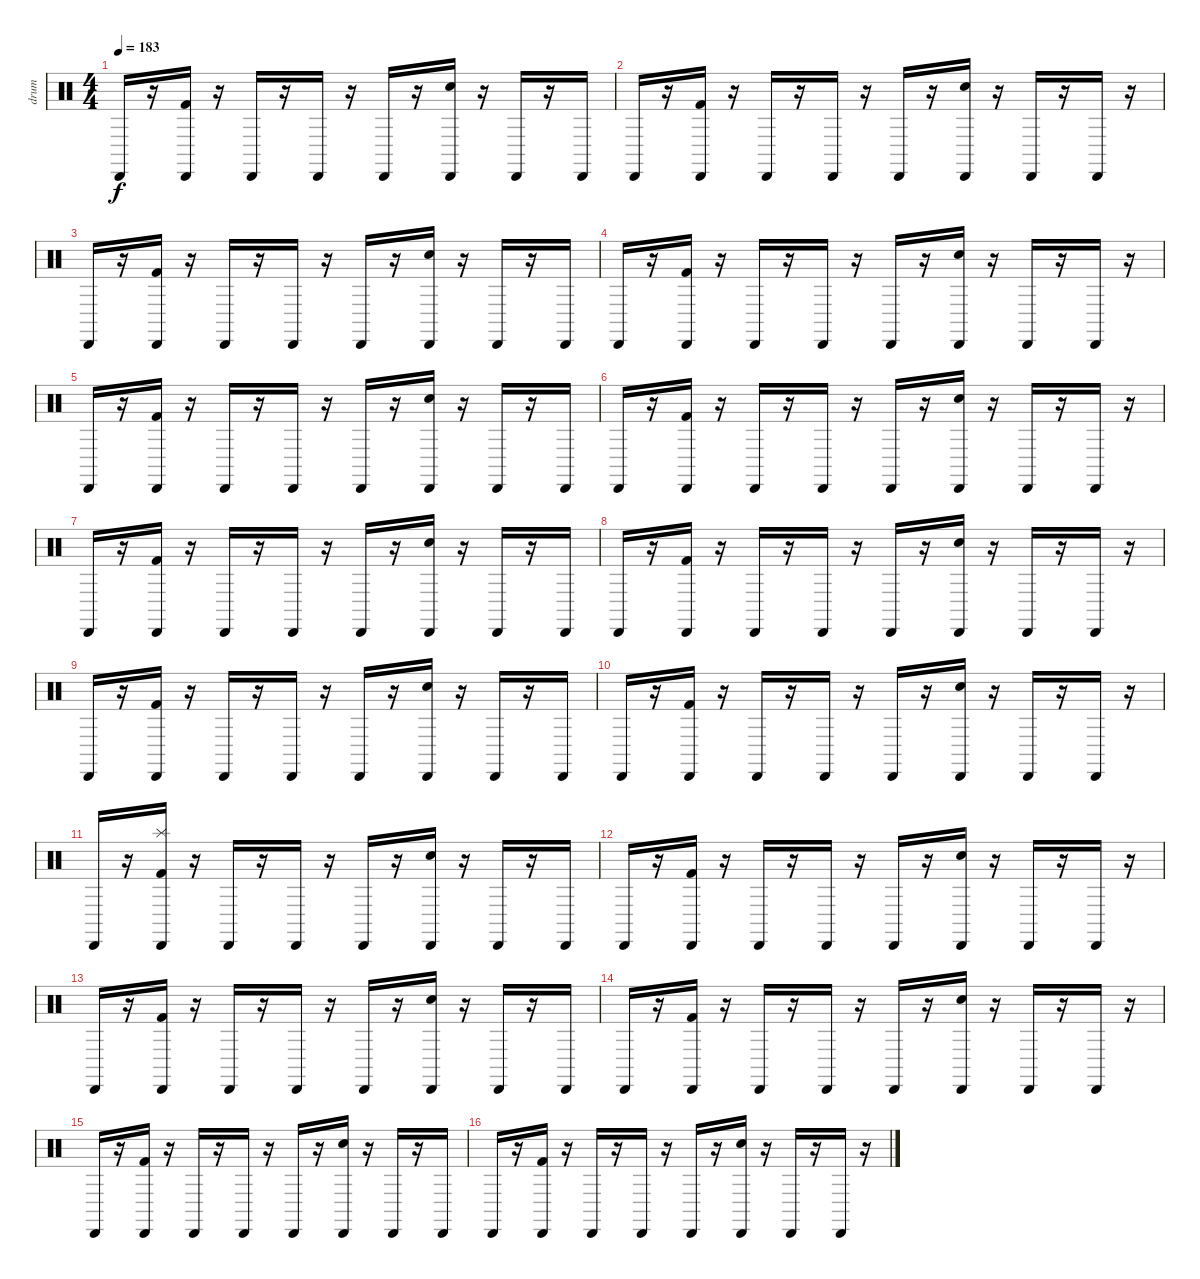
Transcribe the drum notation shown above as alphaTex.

\track ("drum" "drum") {instrument percussion}
\staff {score}
\articulation defaults
\ts (4 4)
\tempo 183
\clef neutral
\ks c "Cabasa (hit)".16{dy f}
r.16 ("Cabasa (hit)" "Kick (hit) 2").16 r.16 "Cabasa (hit)".16 r.16 "Cabasa (hit)".16 r.16 "Cabasa (hit)".16 r.16 ("Cabasa (hit)" "Snare (hit) 2").16 r.16 "Cabasa (hit)".16 r.16 "Cabasa (hit)".16 |
"Cabasa (hit)".16 r.16 ("Cabasa (hit)" "Kick (hit) 2").16 r.16 "Cabasa (hit)".16 r.16 "Cabasa (hit)".16 r.16 "Cabasa (hit)".16 r.16 ("Cabasa (hit)" "Snare (hit) 2").16 r.16 "Cabasa (hit)".16 r.16 "Cabasa (hit)".16 r.16 |
"Cabasa (hit)".16 r.16 ("Cabasa (hit)" "Kick (hit) 2").16 r.16 "Cabasa (hit)".16 r.16 "Cabasa (hit)".16 r.16 "Cabasa (hit)".16 r.16 ("Cabasa (hit)" "Snare (hit) 2").16 r.16 "Cabasa (hit)".16 r.16 "Cabasa (hit)".16 |
"Cabasa (hit)".16 r.16 ("Cabasa (hit)" "Kick (hit) 2").16 r.16 "Cabasa (hit)".16 r.16 "Cabasa (hit)".16 r.16 "Cabasa (hit)".16 r.16 ("Cabasa (hit)" "Snare (hit) 2").16 r.16 "Cabasa (hit)".16 r.16 "Cabasa (hit)".16 r.16 |
"Cabasa (hit)".16 r.16 ("Cabasa (hit)" "Kick (hit) 2").16 r.16 "Cabasa (hit)".16 r.16 "Cabasa (hit)".16 r.16 "Cabasa (hit)".16 r.16 ("Cabasa (hit)" "Snare (hit) 2").16 r.16 "Cabasa (hit)".16 r.16 "Cabasa (hit)".16 |
"Cabasa (hit)".16 r.16 ("Cabasa (hit)" "Kick (hit) 2").16 r.16 "Cabasa (hit)".16 r.16 "Cabasa (hit)".16 r.16 "Cabasa (hit)".16 r.16 ("Cabasa (hit)" "Snare (hit) 2").16 r.16 "Cabasa (hit)".16 r.16 "Cabasa (hit)".16 r.16 |
"Cabasa (hit)".16 r.16 ("Cabasa (hit)" "Kick (hit) 2").16 r.16 "Cabasa (hit)".16 r.16 "Cabasa (hit)".16 r.16 "Cabasa (hit)".16 r.16 ("Cabasa (hit)" "Snare (hit) 2").16 r.16 "Cabasa (hit)".16 r.16 "Cabasa (hit)".16 |
"Cabasa (hit)".16 r.16 ("Cabasa (hit)" "Kick (hit) 2").16 r.16 "Cabasa (hit)".16 r.16 "Cabasa (hit)".16 r.16 "Cabasa (hit)".16 r.16 ("Cabasa (hit)" "Snare (hit) 2").16 r.16 "Cabasa (hit)".16 r.16 "Cabasa (hit)".16 r.16 |
"Cabasa (hit)".16 r.16 ("Cabasa (hit)" "Kick (hit) 2").16 r.16 "Cabasa (hit)".16 r.16 "Cabasa (hit)".16 r.16 "Cabasa (hit)".16 r.16 ("Cabasa (hit)" "Snare (hit) 2").16 r.16 "Cabasa (hit)".16 r.16 "Cabasa (hit)".16 |
"Cabasa (hit)".16 r.16 ("Cabasa (hit)" "Kick (hit) 2").16 r.16 "Cabasa (hit)".16 r.16 "Cabasa (hit)".16 r.16 "Cabasa (hit)".16 r.16 ("Cabasa (hit)" "Snare (hit) 2").16 r.16 "Cabasa (hit)".16 r.16 "Cabasa (hit)".16 r.16 |
"Cabasa (hit)".16 r.16 ("Cabasa (hit)" "Kick (hit) 2" "Splash (hit)").16 r.16 "Cabasa (hit)".16 r.16 "Cabasa (hit)".16 r.16 "Cabasa (hit)".16 r.16 ("Cabasa (hit)" "Snare (hit) 2").16 r.16 "Cabasa (hit)".16 r.16 "Cabasa (hit)".16 |
"Cabasa (hit)".16 r.16 ("Cabasa (hit)" "Kick (hit) 2").16 r.16 "Cabasa (hit)".16 r.16 "Cabasa (hit)".16 r.16 "Cabasa (hit)".16 r.16 ("Cabasa (hit)" "Snare (hit) 2").16 r.16 "Cabasa (hit)".16 r.16 "Cabasa (hit)".16 r.16 |
"Cabasa (hit)".16 r.16 ("Cabasa (hit)" "Kick (hit) 2").16 r.16 "Cabasa (hit)".16 r.16 "Cabasa (hit)".16 r.16 "Cabasa (hit)".16 r.16 ("Cabasa (hit)" "Snare (hit) 2").16 r.16 "Cabasa (hit)".16 r.16 "Cabasa (hit)".16 |
"Cabasa (hit)".16 r.16 ("Cabasa (hit)" "Kick (hit) 2").16 r.16 "Cabasa (hit)".16 r.16 "Cabasa (hit)".16 r.16 "Cabasa (hit)".16 r.16 ("Cabasa (hit)" "Snare (hit) 2").16 r.16 "Cabasa (hit)".16 r.16 "Cabasa (hit)".16 r.16 |
"Cabasa (hit)".16 r.16 ("Cabasa (hit)" "Kick (hit) 2").16 r.16 "Cabasa (hit)".16 r.16 "Cabasa (hit)".16 r.16 "Cabasa (hit)".16 r.16 ("Cabasa (hit)" "Snare (hit) 2").16 r.16 "Cabasa (hit)".16 r.16 "Cabasa (hit)".16 |
"Cabasa (hit)".16 r.16 ("Cabasa (hit)" "Kick (hit) 2").16 r.16 "Cabasa (hit)".16 r.16 "Cabasa (hit)".16 r.16 "Cabasa (hit)".16 r.16 ("Cabasa (hit)" "Snare (hit) 2").16 r.16 "Cabasa (hit)".16 r.16 "Cabasa (hit)".16 r.16
